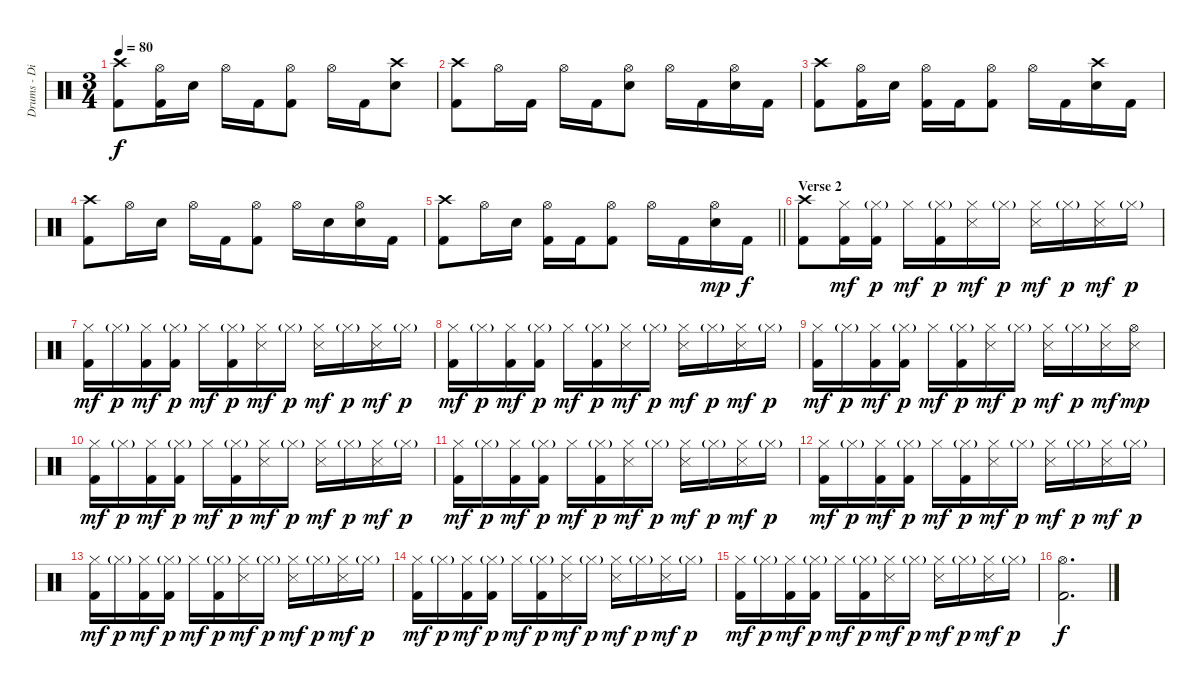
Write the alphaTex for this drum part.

\track ("Drums - Dino Campanella" "Drums - Di") {instrument percussion}
\staff {score}
\articulation defaults
\ts (3 4)
\tempo 80
\clef neutral
\ks c
("Crash high (hit)" "Kick (hit) 2").8{dy f} ("Hi-Hat (open)" "Kick (hit) 2").16 "Electric Snare (hit)".16 "Hi-Hat (open)".16 "Kick (hit) 2".16 ("Hi-Hat (open)" "Kick (hit) 2").8 "Hi-Hat (open)".16 "Kick (hit) 2".16 ("Crash high (hit)" "Electric Snare (hit)").8 |
("Crash high (hit)" "Kick (hit) 2").8 "Hi-Hat (open)".16 "Kick (hit) 2".16 "Hi-Hat (open)".16 "Kick (hit) 2".16 ("Hi-Hat (open)" "Electric Snare (hit)").8 "Hi-Hat (open)".16 "Kick (hit) 2".16 ("Hi-Hat (open)" "Electric Snare (hit)").16 "Kick (hit) 2".16 |
("Crash high (hit)" "Kick (hit) 2").8 ("Hi-Hat (open)" "Kick (hit) 2").16 "Electric Snare (hit)".16 ("Hi-Hat (open)" "Kick (hit) 2").16 "Kick (hit) 2".16 ("Hi-Hat (open)" "Kick (hit) 2").8 "Hi-Hat (open)".16 "Kick (hit) 2".16 ("Crash high (hit)" "Electric Snare (hit)").16 "Kick (hit) 2".16 |
("Crash high (hit)" "Kick (hit) 2").8 "Hi-Hat (open)".16 "Electric Snare (hit)".16 "Hi-Hat (open)".16 "Kick (hit) 2".16 ("Hi-Hat (open)" "Kick (hit) 2").8 "Hi-Hat (open)".16 "Electric Snare (hit)".16 ("Hi-Hat (open)" "Electric Snare (hit)").16 "Kick (hit) 2".16 |
\barLineRight lightlight
("Crash high (hit)" "Kick (hit) 2").8 "Hi-Hat (open)".16 "Electric Snare (hit)".16 ("Hi-Hat (open)" "Kick (hit) 2").16 "Kick (hit) 2".16 ("Hi-Hat (open)" "Kick (hit) 2").8 "Hi-Hat (open)".16 "Kick (hit) 2".16 ("Hi-Hat (open)" "Electric Snare (hit)").16{dy mp} "Kick (hit) 2".16{dy f} |
\section ("" "Verse 2")
("Crash high (hit)" "Kick (hit) 2").8 ("Hi-Hat (closed)" "Kick (hit) 2").16{dy mf} ("Hi-Hat (closed)"{g} "Kick (hit) 2").16{dy p} "Hi-Hat (closed)".16{dy mf} ("Hi-Hat (closed)"{g} "Kick (hit) 2").16{dy p} ("Hi-Hat (closed)" "Snare (side stick) 3").16{dy mf} "Hi-Hat (closed)"{g}.16{dy p} ("Hi-Hat (closed)" "Snare (side stick) 3").16{dy mf} "Hi-Hat (closed)"{g}.16{dy p} ("Hi-Hat (closed)" "Snare (side stick) 3").16{dy mf} "Hi-Hat (closed)"{g}.16{dy p} |
("Hi-Hat (closed)" "Kick (hit) 2").16{dy mf} "Hi-Hat (closed)"{g}.16{dy p} ("Hi-Hat (closed)" "Kick (hit) 2").16{dy mf} ("Hi-Hat (closed)"{g} "Kick (hit) 2").16{dy p} "Hi-Hat (closed)".16{dy mf} ("Hi-Hat (closed)"{g} "Kick (hit) 2").16{dy p} ("Hi-Hat (closed)" "Snare (side stick) 3").16{dy mf} "Hi-Hat (closed)"{g}.16{dy p} ("Hi-Hat (closed)" "Snare (side stick) 3").16{dy mf} "Hi-Hat (closed)"{g}.16{dy p} ("Hi-Hat (closed)" "Snare (side stick) 3").16{dy mf} "Hi-Hat (closed)"{g}.16{dy p} |
("Hi-Hat (closed)" "Kick (hit) 2").16{dy mf} "Hi-Hat (closed)"{g}.16{dy p} ("Hi-Hat (closed)" "Kick (hit) 2").16{dy mf} ("Hi-Hat (closed)"{g} "Kick (hit) 2").16{dy p} "Hi-Hat (closed)".16{dy mf} ("Hi-Hat (closed)"{g} "Kick (hit) 2").16{dy p} ("Hi-Hat (closed)" "Snare (side stick) 3").16{dy mf} "Hi-Hat (closed)"{g}.16{dy p} ("Hi-Hat (closed)" "Snare (side stick) 3").16{dy mf} "Hi-Hat (closed)"{g}.16{dy p} ("Hi-Hat (closed)" "Snare (side stick) 3").16{dy mf} "Hi-Hat (closed)"{g}.16{dy p} |
("Hi-Hat (closed)" "Kick (hit) 2").16{dy mf} "Hi-Hat (closed)"{g}.16{dy p} ("Hi-Hat (closed)" "Kick (hit) 2").16{dy mf} ("Hi-Hat (closed)"{g} "Kick (hit) 2").16{dy p} "Hi-Hat (closed)".16{dy mf} ("Hi-Hat (closed)"{g} "Kick (hit) 2").16{dy p} ("Hi-Hat (closed)" "Snare (side stick) 3").16{dy mf} "Hi-Hat (closed)"{g}.16{dy p} ("Hi-Hat (closed)" "Snare (side stick) 3").16{dy mf} "Hi-Hat (closed)"{g}.16{dy p} ("Hi-Hat (closed)" "Snare (side stick) 3").16{dy mf} ("Hi-Hat (open)" "Snare (side stick) 3").16{dy mp} |
("Hi-Hat (closed)" "Kick (hit) 2").16{dy mf} "Hi-Hat (closed)"{g}.16{dy p} ("Hi-Hat (closed)" "Kick (hit) 2").16{dy mf} ("Hi-Hat (closed)"{g} "Kick (hit) 2").16{dy p} "Hi-Hat (closed)".16{dy mf} ("Hi-Hat (closed)"{g} "Kick (hit) 2").16{dy p} ("Hi-Hat (closed)" "Snare (side stick) 3").16{dy mf} "Hi-Hat (closed)"{g}.16{dy p} ("Hi-Hat (closed)" "Snare (side stick) 3").16{dy mf} "Hi-Hat (closed)"{g}.16{dy p} ("Hi-Hat (closed)" "Snare (side stick) 3").16{dy mf} "Hi-Hat (closed)"{g}.16{dy p} |
("Hi-Hat (closed)" "Kick (hit) 2").16{dy mf} "Hi-Hat (closed)"{g}.16{dy p} ("Hi-Hat (closed)" "Kick (hit) 2").16{dy mf} ("Hi-Hat (closed)"{g} "Kick (hit) 2").16{dy p} "Hi-Hat (closed)".16{dy mf} ("Hi-Hat (closed)"{g} "Kick (hit) 2").16{dy p} ("Hi-Hat (closed)" "Snare (side stick) 3").16{dy mf} "Hi-Hat (closed)"{g}.16{dy p} ("Hi-Hat (closed)" "Snare (side stick) 3").16{dy mf} "Hi-Hat (closed)"{g}.16{dy p} ("Hi-Hat (closed)" "Snare (side stick) 3").16{dy mf} "Hi-Hat (closed)"{g}.16{dy p} |
("Hi-Hat (closed)" "Kick (hit) 2").16{dy mf} "Hi-Hat (closed)"{g}.16{dy p} ("Hi-Hat (closed)" "Kick (hit) 2").16{dy mf} ("Hi-Hat (closed)"{g} "Kick (hit) 2").16{dy p} "Hi-Hat (closed)".16{dy mf} ("Hi-Hat (closed)"{g} "Kick (hit) 2").16{dy p} ("Hi-Hat (closed)" "Snare (side stick) 3").16{dy mf} "Hi-Hat (closed)"{g}.16{dy p} ("Hi-Hat (closed)" "Snare (side stick) 3").16{dy mf} "Hi-Hat (closed)"{g}.16{dy p} ("Hi-Hat (closed)" "Snare (side stick) 3").16{dy mf} "Hi-Hat (closed)"{g}.16{dy p} |
("Hi-Hat (closed)" "Kick (hit) 2").16{dy mf} "Hi-Hat (closed)"{g}.16{dy p} ("Hi-Hat (closed)" "Kick (hit) 2").16{dy mf} ("Hi-Hat (closed)"{g} "Kick (hit) 2").16{dy p} "Hi-Hat (closed)".16{dy mf} ("Hi-Hat (closed)"{g} "Kick (hit) 2").16{dy p} ("Hi-Hat (closed)" "Snare (side stick) 3").16{dy mf} "Hi-Hat (closed)"{g}.16{dy p} ("Hi-Hat (closed)" "Snare (side stick) 3").16{dy mf} "Hi-Hat (closed)"{g}.16{dy p} ("Hi-Hat (closed)" "Snare (side stick) 3").16{dy mf} "Hi-Hat (closed)"{g}.16{dy p} |
("Hi-Hat (closed)" "Kick (hit) 2").16{dy mf} "Hi-Hat (closed)"{g}.16{dy p} ("Hi-Hat (closed)" "Kick (hit) 2").16{dy mf} ("Hi-Hat (closed)"{g} "Kick (hit) 2").16{dy p} "Hi-Hat (closed)".16{dy mf} ("Hi-Hat (closed)"{g} "Kick (hit) 2").16{dy p} ("Hi-Hat (closed)" "Snare (side stick) 3").16{dy mf} "Hi-Hat (closed)"{g}.16{dy p} ("Hi-Hat (closed)" "Snare (side stick) 3").16{dy mf} "Hi-Hat (closed)"{g}.16{dy p} ("Hi-Hat (closed)" "Snare (side stick) 3").16{dy mf} "Hi-Hat (closed)"{g}.16{dy p} |
("Hi-Hat (closed)" "Kick (hit) 2").16{dy mf} "Hi-Hat (closed)"{g}.16{dy p} ("Hi-Hat (closed)" "Kick (hit) 2").16{dy mf} ("Hi-Hat (closed)"{g} "Kick (hit) 2").16{dy p} "Hi-Hat (closed)".16{dy mf} ("Hi-Hat (closed)"{g} "Kick (hit) 2").16{dy p} ("Hi-Hat (closed)" "Snare (side stick) 3").16{dy mf} "Hi-Hat (closed)"{g}.16{dy p} ("Hi-Hat (closed)" "Snare (side stick) 3").16{dy mf} "Hi-Hat (closed)"{g}.16{dy p} ("Hi-Hat (closed)" "Snare (side stick) 3").16{dy mf} "Hi-Hat (closed)"{g}.16{dy p} |
("Hi-Hat (open)" "Kick (hit) 2").2{d dy f}
